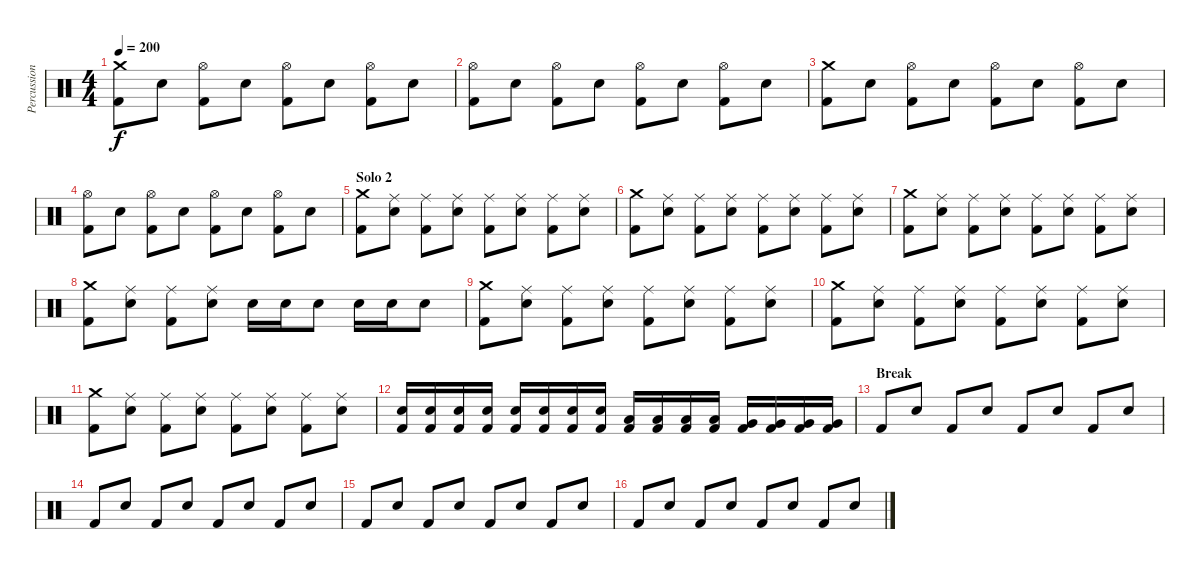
\track ("Percussion" "Percussion") {instrument percussion}
\staff {score}
\articulation defaults
\ts (4 4)
\tempo 200
\clef neutral
\ks c
("Crash medium (hit)" "Kick (hit) 2").8{dy f} "Snare (hit) 2".8 ("Hi-Hat (open)" "Kick (hit) 2").8 "Snare (hit) 2".8 ("Hi-Hat (open)" "Kick (hit) 2").8 "Snare (hit) 2".8 ("Hi-Hat (open)" "Kick (hit) 2").8 "Snare (hit) 2".8 |
("Hi-Hat (open)" "Kick (hit) 2").8 "Snare (hit) 2".8 ("Hi-Hat (open)" "Kick (hit) 2").8 "Snare (hit) 2".8 ("Hi-Hat (open)" "Kick (hit) 2").8 "Snare (hit) 2".8 ("Hi-Hat (open)" "Kick (hit) 2").8 "Snare (hit) 2".8 |
("Crash medium (hit)" "Kick (hit) 2").8 "Snare (hit) 2".8 ("Hi-Hat (open)" "Kick (hit) 2").8 "Snare (hit) 2".8 ("Hi-Hat (open)" "Kick (hit) 2").8 "Snare (hit) 2".8 ("Hi-Hat (open)" "Kick (hit) 2").8 "Snare (hit) 2".8 |
("Hi-Hat (open)" "Kick (hit) 2").8 "Snare (hit) 2".8 ("Hi-Hat (open)" "Kick (hit) 2").8 "Snare (hit) 2".8 ("Hi-Hat (open)" "Kick (hit) 2").8 "Snare (hit) 2".8 ("Hi-Hat (open)" "Kick (hit) 2").8 "Snare (hit) 2".8 |
\section ("" "Solo 2")
("Crash medium (hit)" "Kick (hit) 2").8 ("Ride (middle)" "Snare (hit) 2").8 ("Ride (middle)" "Kick (hit) 2").8 ("Ride (middle)" "Snare (hit) 2").8 ("Ride (middle)" "Kick (hit) 2").8 ("Ride (middle)" "Snare (hit) 2").8 ("Ride (middle)" "Kick (hit) 2").8 ("Ride (middle)" "Snare (hit) 2").8 |
("Crash medium (hit)" "Kick (hit) 2").8 ("Ride (middle)" "Snare (hit) 2").8 ("Ride (middle)" "Kick (hit) 2").8 ("Ride (middle)" "Snare (hit) 2").8 ("Ride (middle)" "Kick (hit) 2").8 ("Ride (middle)" "Snare (hit) 2").8 ("Ride (middle)" "Kick (hit) 2").8 ("Ride (middle)" "Snare (hit) 2").8 |
("Crash medium (hit)" "Kick (hit) 2").8 ("Ride (middle)" "Snare (hit) 2").8 ("Ride (middle)" "Kick (hit) 2").8 ("Ride (middle)" "Snare (hit) 2").8 ("Ride (middle)" "Kick (hit) 2").8 ("Ride (middle)" "Snare (hit) 2").8 ("Ride (middle)" "Kick (hit) 2").8 ("Ride (middle)" "Snare (hit) 2").8 |
("Crash medium (hit)" "Kick (hit) 2").8 ("Ride (middle)" "Snare (hit) 2").8 ("Ride (middle)" "Kick (hit) 2").8 ("Ride (middle)" "Snare (hit) 2").8 "Snare (hit) 2".16 "Snare (hit) 2".16 "Snare (hit) 2".8 "Snare (hit) 2".16 "Snare (hit) 2".16 "Snare (hit) 2".8 |
("Crash medium (hit)" "Kick (hit) 2").8 ("Ride (middle)" "Snare (hit) 2").8 ("Ride (middle)" "Kick (hit) 2").8 ("Ride (middle)" "Snare (hit) 2").8 ("Ride (middle)" "Kick (hit) 2").8 ("Ride (middle)" "Snare (hit) 2").8 ("Ride (middle)" "Kick (hit) 2").8 ("Ride (middle)" "Snare (hit) 2").8 |
("Crash medium (hit)" "Kick (hit) 2").8 ("Ride (middle)" "Snare (hit) 2").8 ("Ride (middle)" "Kick (hit) 2").8 ("Ride (middle)" "Snare (hit) 2").8 ("Ride (middle)" "Kick (hit) 2").8 ("Ride (middle)" "Snare (hit) 2").8 ("Ride (middle)" "Kick (hit) 2").8 ("Ride (middle)" "Snare (hit) 2").8 |
("Crash medium (hit)" "Kick (hit) 2").8 ("Ride (middle)" "Snare (hit) 2").8 ("Ride (middle)" "Kick (hit) 2").8 ("Ride (middle)" "Snare (hit) 2").8 ("Ride (middle)" "Kick (hit) 2").8 ("Ride (middle)" "Snare (hit) 2").8 ("Ride (middle)" "Kick (hit) 2").8 ("Ride (middle)" "Snare (hit) 2").8 |
("Snare (hit) 2" "Kick (hit) 2").16 ("Snare (hit) 2" "Kick (hit) 2").16 ("Snare (hit) 2" "Kick (hit) 2").16 ("Snare (hit) 2" "Kick (hit) 2").16 ("Snare (hit) 2" "Kick (hit) 2").16 ("Snare (hit) 2" "Kick (hit) 2").16 ("Snare (hit) 2" "Kick (hit) 2").16 ("Snare (hit) 2" "Kick (hit) 2").16 ("Low Tom (hit)" "Kick (hit) 2").16 ("Low Tom (hit)" "Kick (hit) 2").16 ("Low Tom (hit)" "Kick (hit) 2").16 ("Low Tom (hit)" "Kick (hit) 2").16 ("Very Low Tom (hit)" "Kick (hit) 2").16 ("Very Low Tom (hit)" "Kick (hit) 2").16 ("Very Low Tom (hit)" "Kick (hit) 2").16 ("Very Low Tom (hit)" "Kick (hit) 2").16 |
\section ("" "Break")
"Kick (hit) 2".8 "Snare (hit) 2".8 "Kick (hit) 2".8 "Snare (hit) 2".8 "Kick (hit) 2".8 "Snare (hit) 2".8 "Kick (hit) 2".8 "Snare (hit) 2".8 |
"Kick (hit) 2".8 "Snare (hit) 2".8 "Kick (hit) 2".8 "Snare (hit) 2".8 "Kick (hit) 2".8 "Snare (hit) 2".8 "Kick (hit) 2".8 "Snare (hit) 2".8 |
"Kick (hit) 2".8 "Snare (hit) 2".8 "Kick (hit) 2".8 "Snare (hit) 2".8 "Kick (hit) 2".8 "Snare (hit) 2".8 "Kick (hit) 2".8 "Snare (hit) 2".8 |
"Kick (hit) 2".8 "Snare (hit) 2".8 "Kick (hit) 2".8 "Snare (hit) 2".8 "Kick (hit) 2".8 "Snare (hit) 2".8 "Kick (hit) 2".8 "Snare (hit) 2".8
